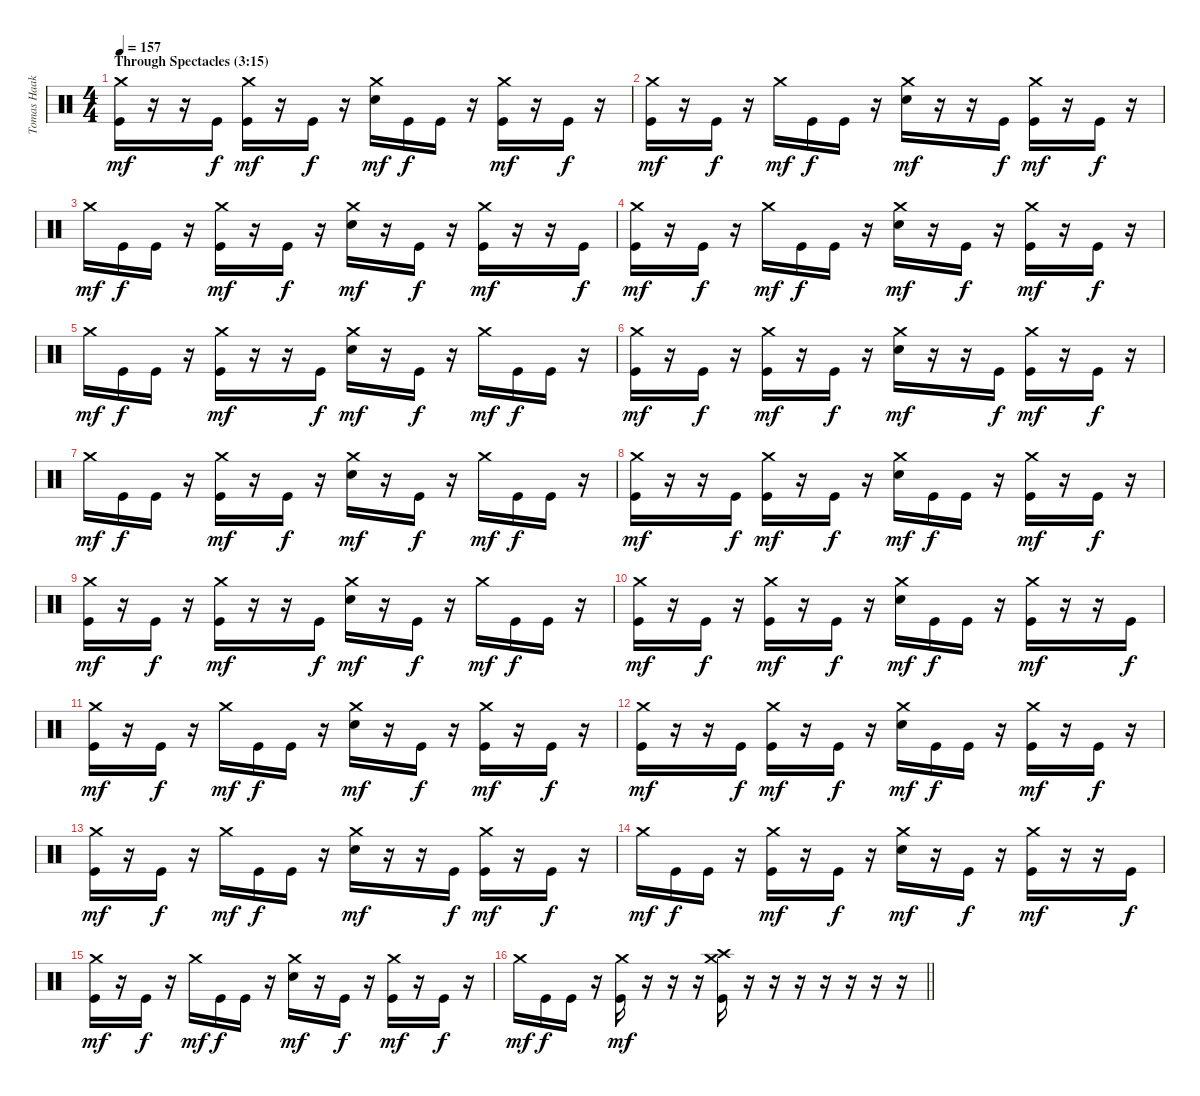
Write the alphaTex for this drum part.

\track ("Tomas Haake (Drums)" "Tomas Haak") {instrument percussion}
\staff {score}
\articulation defaults
\ts (4 4)
\section ("" "Through Spectacles (3:15)")
\tempo 157
\clef neutral
\ks c
("Crash medium (hit)" "Kick (hit)").16{dy mf} r.16 r.16 "Kick (hit)".16{dy f} ("Crash medium (hit)" "Kick (hit)").16{dy mf} r.16 "Kick (hit)".16{dy f} r.16 ("Crash medium (hit)" "Electric Snare (hit)").16{dy mf} "Kick (hit)".16{dy f} "Kick (hit)".16 r.16 ("Crash medium (hit)" "Kick (hit)").16{dy mf} r.16 "Kick (hit)".16{dy f} r.16 |
("Crash medium (hit)" "Kick (hit)").16{dy mf} r.16 "Kick (hit)".16{dy f} r.16 "Crash medium (hit)".16{dy mf} "Kick (hit)".16{dy f} "Kick (hit)".16 r.16 ("Crash medium (hit)" "Electric Snare (hit)").16{dy mf} r.16 r.16 "Kick (hit)".16{dy f} ("Crash medium (hit)" "Kick (hit)").16{dy mf} r.16 "Kick (hit)".16{dy f} r.16 |
"Crash medium (hit)".16{dy mf} "Kick (hit)".16{dy f} "Kick (hit)".16 r.16 ("Crash medium (hit)" "Kick (hit)").16{dy mf} r.16 "Kick (hit)".16{dy f} r.16 ("Crash medium (hit)" "Electric Snare (hit)").16{dy mf} r.16 "Kick (hit)".16{dy f} r.16 ("Crash medium (hit)" "Kick (hit)").16{dy mf} r.16 r.16 "Kick (hit)".16{dy f} |
("Crash medium (hit)" "Kick (hit)").16{dy mf} r.16 "Kick (hit)".16{dy f} r.16 "Crash medium (hit)".16{dy mf} "Kick (hit)".16{dy f} "Kick (hit)".16 r.16 ("Crash medium (hit)" "Electric Snare (hit)").16{dy mf} r.16 "Kick (hit)".16{dy f} r.16 ("Crash medium (hit)" "Kick (hit)").16{dy mf} r.16 "Kick (hit)".16{dy f} r.16 |
"Crash medium (hit)".16{dy mf} "Kick (hit)".16{dy f} "Kick (hit)".16 r.16 ("Crash medium (hit)" "Kick (hit)").16{dy mf} r.16 r.16 "Kick (hit)".16{dy f} ("Crash medium (hit)" "Electric Snare (hit)").16{dy mf} r.16 "Kick (hit)".16{dy f} r.16 "Crash medium (hit)".16{dy mf} "Kick (hit)".16{dy f} "Kick (hit)".16 r.16 |
("Crash medium (hit)" "Kick (hit)").16{dy mf} r.16 "Kick (hit)".16{dy f} r.16 ("Crash medium (hit)" "Kick (hit)").16{dy mf} r.16 "Kick (hit)".16{dy f} r.16 ("Crash medium (hit)" "Electric Snare (hit)").16{dy mf} r.16 r.16 "Kick (hit)".16{dy f} ("Crash medium (hit)" "Kick (hit)").16{dy mf} r.16 "Kick (hit)".16{dy f} r.16 |
"Crash medium (hit)".16{dy mf} "Kick (hit)".16{dy f} "Kick (hit)".16 r.16 ("Crash medium (hit)" "Kick (hit)").16{dy mf} r.16 "Kick (hit)".16{dy f} r.16 ("Crash medium (hit)" "Electric Snare (hit)").16{dy mf} r.16 "Kick (hit)".16{dy f} r.16 "Crash medium (hit)".16{dy mf} "Kick (hit)".16{dy f} "Kick (hit)".16 r.16 |
("Crash medium (hit)" "Kick (hit)").16{dy mf} r.16 r.16 "Kick (hit)".16{dy f} ("Crash medium (hit)" "Kick (hit)").16{dy mf} r.16 "Kick (hit)".16{dy f} r.16 ("Crash medium (hit)" "Electric Snare (hit)").16{dy mf} "Kick (hit)".16{dy f} "Kick (hit)".16 r.16 ("Crash medium (hit)" "Kick (hit)").16{dy mf} r.16 "Kick (hit)".16{dy f} r.16 |
("Crash medium (hit)" "Kick (hit)").16{dy mf} r.16 "Kick (hit)".16{dy f} r.16 ("Crash medium (hit)" "Kick (hit)").16{dy mf} r.16 r.16 "Kick (hit)".16{dy f} ("Crash medium (hit)" "Electric Snare (hit)").16{dy mf} r.16 "Kick (hit)".16{dy f} r.16 "Crash medium (hit)".16{dy mf} "Kick (hit)".16{dy f} "Kick (hit)".16 r.16 |
("Crash medium (hit)" "Kick (hit)").16{dy mf} r.16 "Kick (hit)".16{dy f} r.16 ("Crash medium (hit)" "Kick (hit)").16{dy mf} r.16 "Kick (hit)".16{dy f} r.16 ("Crash medium (hit)" "Electric Snare (hit)").16{dy mf} "Kick (hit)".16{dy f} "Kick (hit)".16 r.16 ("Crash medium (hit)" "Kick (hit)").16{dy mf} r.16 r.16 "Kick (hit)".16{dy f} |
("Crash medium (hit)" "Kick (hit)").16{dy mf} r.16 "Kick (hit)".16{dy f} r.16 "Crash medium (hit)".16{dy mf} "Kick (hit)".16{dy f} "Kick (hit)".16 r.16 ("Crash medium (hit)" "Electric Snare (hit)").16{dy mf} r.16 "Kick (hit)".16{dy f} r.16 ("Crash medium (hit)" "Kick (hit)").16{dy mf} r.16 "Kick (hit)".16{dy f} r.16 |
("Crash medium (hit)" "Kick (hit)").16{dy mf} r.16 r.16 "Kick (hit)".16{dy f} ("Crash medium (hit)" "Kick (hit)").16{dy mf} r.16 "Kick (hit)".16{dy f} r.16 ("Crash medium (hit)" "Electric Snare (hit)").16{dy mf} "Kick (hit)".16{dy f} "Kick (hit)".16 r.16 ("Crash medium (hit)" "Kick (hit)").16{dy mf} r.16 "Kick (hit)".16{dy f} r.16 |
("Crash medium (hit)" "Kick (hit)").16{dy mf} r.16 "Kick (hit)".16{dy f} r.16 "Crash medium (hit)".16{dy mf} "Kick (hit)".16{dy f} "Kick (hit)".16 r.16 ("Crash medium (hit)" "Electric Snare (hit)").16{dy mf} r.16 r.16 "Kick (hit)".16{dy f} ("Crash medium (hit)" "Kick (hit)").16{dy mf} r.16 "Kick (hit)".16{dy f} r.16 |
"Crash medium (hit)".16{dy mf} "Kick (hit)".16{dy f} "Kick (hit)".16 r.16 ("Crash medium (hit)" "Kick (hit)").16{dy mf} r.16 "Kick (hit)".16{dy f} r.16 ("Crash medium (hit)" "Electric Snare (hit)").16{dy mf} r.16 "Kick (hit)".16{dy f} r.16 ("Crash medium (hit)" "Kick (hit)").16{dy mf} r.16 r.16 "Kick (hit)".16{dy f} |
("Crash medium (hit)" "Kick (hit)").16{dy mf} r.16 "Kick (hit)".16{dy f} r.16 "Crash medium (hit)".16{dy mf} "Kick (hit)".16{dy f} "Kick (hit)".16 r.16 ("Crash medium (hit)" "Electric Snare (hit)").16{dy mf} r.16 "Kick (hit)".16{dy f} r.16 ("Crash medium (hit)" "Kick (hit)").16{dy mf} r.16 "Kick (hit)".16{dy f} r.16 |
\barLineRight lightlight "Crash medium (hit)".16{dy mf} "Kick (hit)".16{dy f} "Kick (hit)".16
r.16 ("Crash medium (hit)" "Kick (hit)").16{dy mf} r.16 r.16 r.16 ("Crash medium (hit)" "Crash high (hit)" "Kick (hit)").16 r.16 r.16 r.16 r.16 r.16 r.16 r.16
